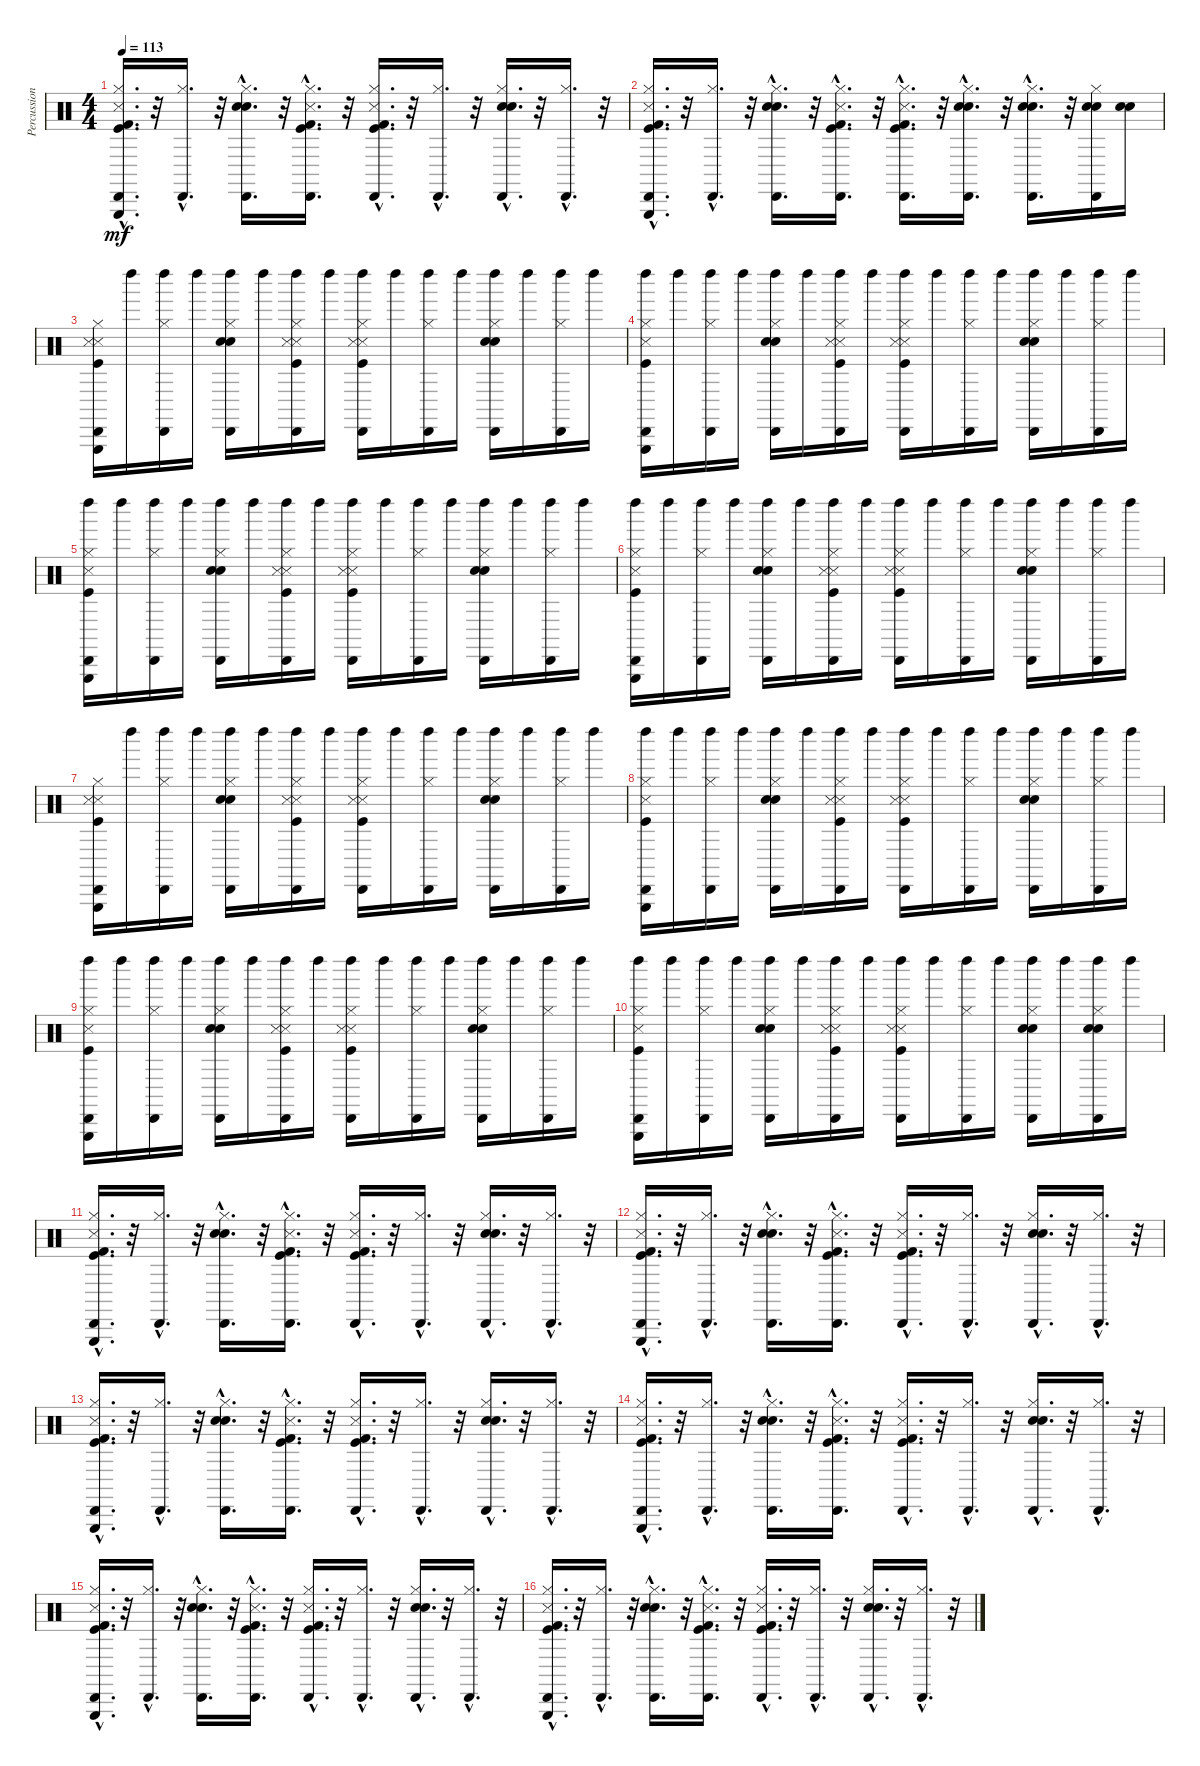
\track ("Percussion" "Percussion") {instrument percussion}
\staff {score}
\articulation defaults
\ts (4 4)
\tempo 113
\clef neutral
\ks c
("Hi-Hat (closed)"{hac} "Kick (hit)"{hac} "Metronome (hit)"{hac} "Triangle (hit)"{hac} "Cabasa (hit)"{hac} "Kick (hit) 2"{hac}).16{d dy mf} r.32 ("Hi-Hat (closed)"{hac} "Cabasa (hit)"{hac}).16{d} r.32 ("Hi-Hat (closed)"{hac} "Electric Snare (hit)"{hac} "Cabasa (hit)"{hac} "Hand Clap (hit)"{hac}).16{d} r.32 ("Hi-Hat (closed)"{hac} "Metronome (hit)"{hac} "Kick (hit)"{hac} "Cabasa (hit)"{hac} "Kick (hit) 2"{hac}).16{d} r.32 ("Hi-Hat (closed)"{hac} "Kick (hit)"{hac} "Metronome (hit)"{hac} "Cabasa (hit)"{hac} "Kick (hit) 2"{hac}).16{d} r.32 ("Hi-Hat (closed)"{hac} "Cabasa (hit)"{hac}).16{d} r.32 ("Hi-Hat (closed)"{hac} "Electric Snare (hit)"{hac} "Hand Clap (hit)"{hac} "Cabasa (hit)"{hac}).16{d} r.32 ("Hi-Hat (closed)"{hac} "Cabasa (hit)"{hac}).16{d} r.32 |
("Hi-Hat (closed)"{hac} "Kick (hit)"{hac} "Metronome (hit)"{hac} "Triangle (hit)"{hac} "Cabasa (hit)"{hac} "Kick (hit) 2"{hac}).16{d} r.32 ("Hi-Hat (closed)"{hac} "Cabasa (hit)"{hac}).16{d} r.32 ("Hi-Hat (closed)"{hac} "Electric Snare (hit)"{hac} "Cabasa (hit)"{hac} "Hand Clap (hit)"{hac}).16{d} r.32 ("Hi-Hat (closed)"{hac} "Metronome (hit)"{hac} "Kick (hit)"{hac} "Cabasa (hit)"{hac} "Kick (hit) 2"{hac}).16{d} r.32 ("Hi-Hat (closed)"{hac} "Kick (hit)"{hac} "Metronome (hit)"{hac} "Cabasa (hit)"{hac} "Kick (hit) 2"{hac}).16{d} r.32 ("Hand Clap (hit)"{hac} "Electric Snare (hit)"{hac} "Hi-Hat (closed)"{hac} "Cabasa (hit)"{hac}).16{d} r.32 ("Hi-Hat (closed)"{hac} "Electric Snare (hit)"{hac} "Hand Clap (hit)"{hac} "Cabasa (hit)"{hac}).16{d} r.32 ("Cabasa (hit)" "Hi-Hat (closed)" "Hand Clap (hit)" "Electric Snare (hit)").16 ("Hand Clap (hit)" "Electric Snare (hit)").16 |
("Metronome (hit)" "Kick (hit)" "Snare (side stick) 3" "Hi-Hat (closed)" "Triangle (hit)" "Cabasa (hit)").16 "Left Maraca (hit)".16 ("Hi-Hat (closed)" "Cabasa (hit)" "Left Maraca (hit)").16 "Left Maraca (hit)".16 ("Hi-Hat (closed)" "Electric Snare (hit)" "Hand Clap (hit)" "Cabasa (hit)" "Left Maraca (hit)").16 "Left Maraca (hit)".16 ("Metronome (hit)" "Snare (side stick) 3" "Kick (hit)" "Hi-Hat (closed)" "Cabasa (hit)" "Left Maraca (hit)").16 "Left Maraca (hit)".16 ("Kick (hit)" "Metronome (hit)" "Snare (side stick) 3" "Hi-Hat (closed)" "Cabasa (hit)" "Left Maraca (hit)").16 "Left Maraca (hit)".16 ("Hi-Hat (closed)" "Cabasa (hit)" "Left Maraca (hit)").16 "Left Maraca (hit)".16 ("Hand Clap (hit)" "Electric Snare (hit)" "Hi-Hat (closed)" "Cabasa (hit)" "Left Maraca (hit)").16 "Left Maraca (hit)".16 ("Hi-Hat (closed)" "Cabasa (hit)" "Left Maraca (hit)").16 "Left Maraca (hit)".16 |
("Left Maraca (hit)" "Cabasa (hit)" "Triangle (hit)" "Hi-Hat (closed)" "Snare (side stick) 3" "Kick (hit)").16 "Left Maraca (hit)".16 ("Left Maraca (hit)" "Cabasa (hit)" "Hi-Hat (closed)").16 "Left Maraca (hit)".16 ("Left Maraca (hit)" "Cabasa (hit)" "Hi-Hat (closed)" "Electric Snare (hit)" "Hand Clap (hit)").16 "Left Maraca (hit)".16 ("Hi-Hat (closed)" "Left Maraca (hit)" "Cabasa (hit)" "Metronome (hit)" "Kick (hit)" "Snare (side stick) 3").16 "Left Maraca (hit)".16 ("Left Maraca (hit)" "Cabasa (hit)" "Hi-Hat (closed)" "Snare (side stick) 3" "Kick (hit)" "Metronome (hit)").16 "Left Maraca (hit)".16 ("Left Maraca (hit)" "Cabasa (hit)" "Hi-Hat (closed)").16 "Left Maraca (hit)".16 ("Left Maraca (hit)" "Cabasa (hit)" "Hi-Hat (closed)" "Electric Snare (hit)" "Hand Clap (hit)").16 "Left Maraca (hit)".16 ("Left Maraca (hit)" "Cabasa (hit)" "Hi-Hat (closed)").16 "Left Maraca (hit)".16 |
("Left Maraca (hit)" "Cabasa (hit)" "Triangle (hit)" "Hi-Hat (closed)" "Snare (side stick) 3" "Kick (hit)").16 "Left Maraca (hit)".16 ("Left Maraca (hit)" "Cabasa (hit)" "Hi-Hat (closed)").16 "Left Maraca (hit)".16 ("Left Maraca (hit)" "Cabasa (hit)" "Hi-Hat (closed)" "Electric Snare (hit)" "Hand Clap (hit)").16 "Left Maraca (hit)".16 ("Left Maraca (hit)" "Cabasa (hit)" "Hi-Hat (closed)" "Metronome (hit)" "Kick (hit)" "Snare (side stick) 3").16 "Left Maraca (hit)".16 ("Left Maraca (hit)" "Cabasa (hit)" "Hi-Hat (closed)" "Snare (side stick) 3" "Kick (hit)" "Metronome (hit)").16 "Left Maraca (hit)".16 ("Left Maraca (hit)" "Cabasa (hit)" "Hi-Hat (closed)").16 "Left Maraca (hit)".16 ("Left Maraca (hit)" "Cabasa (hit)" "Hi-Hat (closed)" "Electric Snare (hit)" "Hand Clap (hit)").16 "Left Maraca (hit)".16 ("Left Maraca (hit)" "Cabasa (hit)" "Hi-Hat (closed)").16 "Left Maraca (hit)".16 |
("Left Maraca (hit)" "Cabasa (hit)" "Triangle (hit)" "Hi-Hat (closed)" "Snare (side stick) 3" "Kick (hit)").16 "Left Maraca (hit)".16 ("Left Maraca (hit)" "Cabasa (hit)" "Hi-Hat (closed)").16 "Left Maraca (hit)".16 ("Left Maraca (hit)" "Cabasa (hit)" "Hi-Hat (closed)" "Electric Snare (hit)" "Hand Clap (hit)").16 "Left Maraca (hit)".16 ("Left Maraca (hit)" "Cabasa (hit)" "Hi-Hat (closed)" "Metronome (hit)" "Kick (hit)" "Snare (side stick) 3").16 "Left Maraca (hit)".16 ("Left Maraca (hit)" "Cabasa (hit)" "Hi-Hat (closed)" "Snare (side stick) 3" "Kick (hit)" "Metronome (hit)").16 "Left Maraca (hit)".16 ("Left Maraca (hit)" "Cabasa (hit)" "Hi-Hat (closed)").16 "Left Maraca (hit)".16 ("Left Maraca (hit)" "Cabasa (hit)" "Hi-Hat (closed)" "Electric Snare (hit)" "Hand Clap (hit)").16 "Left Maraca (hit)".16 ("Left Maraca (hit)" "Cabasa (hit)" "Hi-Hat (closed)").16 "Left Maraca (hit)".16 |
("Metronome (hit)" "Kick (hit)" "Snare (side stick) 3" "Hi-Hat (closed)" "Triangle (hit)" "Cabasa (hit)").16 "Left Maraca (hit)".16 ("Hi-Hat (closed)" "Cabasa (hit)" "Left Maraca (hit)").16 "Left Maraca (hit)".16 ("Hand Clap (hit)" "Electric Snare (hit)" "Hi-Hat (closed)" "Cabasa (hit)" "Left Maraca (hit)").16 "Left Maraca (hit)".16 ("Snare (side stick) 3" "Kick (hit)" "Metronome (hit)" "Hi-Hat (closed)" "Cabasa (hit)" "Left Maraca (hit)").16 "Left Maraca (hit)".16 ("Metronome (hit)" "Kick (hit)" "Snare (side stick) 3" "Hi-Hat (closed)" "Cabasa (hit)" "Left Maraca (hit)").16 "Left Maraca (hit)".16 ("Hi-Hat (closed)" "Cabasa (hit)" "Left Maraca (hit)").16 "Left Maraca (hit)".16 ("Hand Clap (hit)" "Electric Snare (hit)" "Hi-Hat (closed)" "Cabasa (hit)" "Left Maraca (hit)").16 "Left Maraca (hit)".16 ("Hi-Hat (closed)" "Cabasa (hit)" "Left Maraca (hit)").16 "Left Maraca (hit)".16 |
("Left Maraca (hit)" "Cabasa (hit)" "Triangle (hit)" "Hi-Hat (closed)" "Snare (side stick) 3" "Kick (hit)").16 "Left Maraca (hit)".16 ("Left Maraca (hit)" "Cabasa (hit)" "Hi-Hat (closed)").16 "Left Maraca (hit)".16 ("Left Maraca (hit)" "Cabasa (hit)" "Hi-Hat (closed)" "Electric Snare (hit)" "Hand Clap (hit)").16 "Left Maraca (hit)".16 ("Left Maraca (hit)" "Cabasa (hit)" "Hi-Hat (closed)" "Metronome (hit)" "Kick (hit)" "Snare (side stick) 3").16 "Left Maraca (hit)".16 ("Left Maraca (hit)" "Cabasa (hit)" "Hi-Hat (closed)" "Snare (side stick) 3" "Kick (hit)" "Metronome (hit)").16 "Left Maraca (hit)".16 ("Left Maraca (hit)" "Cabasa (hit)" "Hi-Hat (closed)").16 "Left Maraca (hit)".16 ("Left Maraca (hit)" "Cabasa (hit)" "Hi-Hat (closed)" "Electric Snare (hit)" "Hand Clap (hit)").16 "Left Maraca (hit)".16 ("Left Maraca (hit)" "Cabasa (hit)" "Hi-Hat (closed)").16 "Left Maraca (hit)".16 |
("Left Maraca (hit)" "Cabasa (hit)" "Triangle (hit)" "Hi-Hat (closed)" "Snare (side stick) 3" "Kick (hit)").16 "Left Maraca (hit)".16 ("Left Maraca (hit)" "Cabasa (hit)" "Hi-Hat (closed)").16 "Left Maraca (hit)".16 ("Left Maraca (hit)" "Cabasa (hit)" "Hi-Hat (closed)" "Electric Snare (hit)" "Hand Clap (hit)").16 "Left Maraca (hit)".16 ("Left Maraca (hit)" "Cabasa (hit)" "Hi-Hat (closed)" "Metronome (hit)" "Kick (hit)" "Snare (side stick) 3").16 "Left Maraca (hit)".16 ("Left Maraca (hit)" "Cabasa (hit)" "Hi-Hat (closed)" "Snare (side stick) 3" "Kick (hit)" "Metronome (hit)").16 "Left Maraca (hit)".16 ("Left Maraca (hit)" "Cabasa (hit)" "Hi-Hat (closed)").16 "Left Maraca (hit)".16 ("Left Maraca (hit)" "Cabasa (hit)" "Hi-Hat (closed)" "Electric Snare (hit)" "Hand Clap (hit)").16 "Left Maraca (hit)".16 ("Left Maraca (hit)" "Cabasa (hit)" "Hi-Hat (closed)").16 "Left Maraca (hit)".16 |
("Left Maraca (hit)" "Cabasa (hit)" "Triangle (hit)" "Hi-Hat (closed)" "Snare (side stick) 3" "Kick (hit)").16 "Left Maraca (hit)".16 ("Left Maraca (hit)" "Cabasa (hit)" "Hi-Hat (closed)").16 "Left Maraca (hit)".16 ("Left Maraca (hit)" "Cabasa (hit)" "Hi-Hat (closed)" "Electric Snare (hit)" "Hand Clap (hit)").16 "Left Maraca (hit)".16 ("Left Maraca (hit)" "Cabasa (hit)" "Hi-Hat (closed)" "Metronome (hit)" "Kick (hit)" "Snare (side stick) 3").16 "Left Maraca (hit)".16 ("Left Maraca (hit)" "Cabasa (hit)" "Hi-Hat (closed)" "Snare (side stick) 3" "Kick (hit)" "Metronome (hit)").16 "Left Maraca (hit)".16 ("Left Maraca (hit)" "Cabasa (hit)" "Hi-Hat (closed)").16 "Left Maraca (hit)".16 ("Left Maraca (hit)" "Cabasa (hit)" "Hi-Hat (closed)" "Electric Snare (hit)" "Hand Clap (hit)").16 "Left Maraca (hit)".16 ("Hand Clap (hit)" "Electric Snare (hit)" "Left Maraca (hit)" "Cabasa (hit)" "Hi-Hat (closed)").16 "Left Maraca (hit)".16 |
("Hi-Hat (closed)"{hac} "Kick (hit)"{hac} "Metronome (hit)"{hac} "Triangle (hit)"{hac} "Cabasa (hit)"{hac} "Kick (hit) 2"{hac}).16{d} r.32 ("Hi-Hat (closed)"{hac} "Cabasa (hit)"{hac}).16{d} r.32 ("Cabasa (hit)"{hac} "Hi-Hat (closed)"{hac} "Electric Snare (hit)"{hac} "Hand Clap (hit)"{hac}).16{d} r.32 ("Metronome (hit)"{hac} "Hi-Hat (closed)"{hac} "Kick (hit)"{hac} "Cabasa (hit)"{hac} "Kick (hit) 2"{hac}).16{d} r.32 ("Hi-Hat (closed)"{hac} "Kick (hit)"{hac} "Metronome (hit)"{hac} "Cabasa (hit)"{hac} "Kick (hit) 2"{hac}).16{d} r.32 ("Hi-Hat (closed)"{hac} "Cabasa (hit)"{hac}).16{d} r.32 ("Hi-Hat (closed)"{hac} "Electric Snare (hit)"{hac} "Hand Clap (hit)"{hac} "Cabasa (hit)"{hac}).16{d} r.32 ("Hi-Hat (closed)"{hac} "Cabasa (hit)"{hac}).16{d} r.32 |
("Hi-Hat (closed)"{hac} "Kick (hit)"{hac} "Metronome (hit)"{hac} "Triangle (hit)"{hac} "Cabasa (hit)"{hac} "Kick (hit) 2"{hac}).16{d} r.32 ("Hi-Hat (closed)"{hac} "Cabasa (hit)"{hac}).16{d} r.32 ("Hi-Hat (closed)"{hac} "Electric Snare (hit)"{hac} "Cabasa (hit)"{hac} "Hand Clap (hit)"{hac}).16{d} r.32 ("Hi-Hat (closed)"{hac} "Metronome (hit)"{hac} "Kick (hit)"{hac} "Cabasa (hit)"{hac} "Kick (hit) 2"{hac}).16{d} r.32 ("Hi-Hat (closed)"{hac} "Kick (hit)"{hac} "Metronome (hit)"{hac} "Cabasa (hit)"{hac} "Kick (hit) 2"{hac}).16{d} r.32 ("Hi-Hat (closed)"{hac} "Cabasa (hit)"{hac}).16{d} r.32 ("Hi-Hat (closed)"{hac} "Electric Snare (hit)"{hac} "Hand Clap (hit)"{hac} "Cabasa (hit)"{hac}).16{d} r.32 ("Hi-Hat (closed)"{hac} "Cabasa (hit)"{hac}).16{d} r.32 |
("Hi-Hat (closed)"{hac} "Kick (hit)"{hac} "Metronome (hit)"{hac} "Triangle (hit)"{hac} "Cabasa (hit)"{hac} "Kick (hit) 2"{hac}).16{d} r.32 ("Hi-Hat (closed)"{hac} "Cabasa (hit)"{hac}).16{d} r.32 ("Hi-Hat (closed)"{hac} "Electric Snare (hit)"{hac} "Cabasa (hit)"{hac} "Hand Clap (hit)"{hac}).16{d} r.32 ("Hi-Hat (closed)"{hac} "Metronome (hit)"{hac} "Kick (hit)"{hac} "Cabasa (hit)"{hac} "Kick (hit) 2"{hac}).16{d} r.32 ("Hi-Hat (closed)"{hac} "Kick (hit)"{hac} "Metronome (hit)"{hac} "Cabasa (hit)"{hac} "Kick (hit) 2"{hac}).16{d} r.32 ("Hi-Hat (closed)"{hac} "Cabasa (hit)"{hac}).16{d} r.32 ("Hi-Hat (closed)"{hac} "Electric Snare (hit)"{hac} "Hand Clap (hit)"{hac} "Cabasa (hit)"{hac}).16{d} r.32 ("Hi-Hat (closed)"{hac} "Cabasa (hit)"{hac}).16{d} r.32 |
("Hi-Hat (closed)"{hac} "Kick (hit)"{hac} "Metronome (hit)"{hac} "Triangle (hit)"{hac} "Cabasa (hit)"{hac} "Kick (hit) 2"{hac}).16{d} r.32 ("Hi-Hat (closed)"{hac} "Cabasa (hit)"{hac}).16{d} r.32 ("Hi-Hat (closed)"{hac} "Electric Snare (hit)"{hac} "Cabasa (hit)"{hac} "Hand Clap (hit)"{hac}).16{d} r.32 ("Hi-Hat (closed)"{hac} "Metronome (hit)"{hac} "Kick (hit)"{hac} "Cabasa (hit)"{hac} "Kick (hit) 2"{hac}).16{d} r.32 ("Hi-Hat (closed)"{hac} "Kick (hit)"{hac} "Metronome (hit)"{hac} "Cabasa (hit)"{hac} "Kick (hit) 2"{hac}).16{d} r.32 ("Hi-Hat (closed)"{hac} "Cabasa (hit)"{hac}).16{d} r.32 ("Hi-Hat (closed)"{hac} "Electric Snare (hit)"{hac} "Hand Clap (hit)"{hac} "Cabasa (hit)"{hac}).16{d} r.32 ("Hi-Hat (closed)"{hac} "Cabasa (hit)"{hac}).16{d} r.32 |
("Hi-Hat (closed)"{hac} "Kick (hit)"{hac} "Metronome (hit)"{hac} "Triangle (hit)"{hac} "Cabasa (hit)"{hac} "Kick (hit) 2"{hac}).16{d} r.32 ("Hi-Hat (closed)"{hac} "Cabasa (hit)"{hac}).16{d} r.32 ("Hi-Hat (closed)"{hac} "Electric Snare (hit)"{hac} "Cabasa (hit)"{hac} "Hand Clap (hit)"{hac}).16{d} r.32 ("Hi-Hat (closed)"{hac} "Metronome (hit)"{hac} "Kick (hit)"{hac} "Cabasa (hit)"{hac} "Kick (hit) 2"{hac}).16{d} r.32 ("Hi-Hat (closed)"{hac} "Kick (hit)"{hac} "Metronome (hit)"{hac} "Cabasa (hit)"{hac} "Kick (hit) 2"{hac}).16{d} r.32 ("Hi-Hat (closed)"{hac} "Cabasa (hit)"{hac}).16{d} r.32 ("Hi-Hat (closed)"{hac} "Electric Snare (hit)"{hac} "Hand Clap (hit)"{hac} "Cabasa (hit)"{hac}).16{d} r.32 ("Hi-Hat (closed)"{hac} "Cabasa (hit)"{hac}).16{d} r.32 |
("Kick (hit)"{hac} "Metronome (hit)"{hac} "Triangle (hit)"{hac} "Cabasa (hit)"{hac} "Kick (hit) 2"{hac} "Hi-Hat (closed)"{hac}).16{d} r.32 ("Cabasa (hit)"{hac} "Hi-Hat (closed)"{hac}).16{d} r.32 ("Cabasa (hit)"{hac} "Hand Clap (hit)"{hac} "Electric Snare (hit)"{hac} "Hi-Hat (closed)"{hac}).16{d} r.32 ("Hi-Hat (closed)"{hac} "Kick (hit)"{hac} "Cabasa (hit)"{hac} "Kick (hit) 2"{hac} "Metronome (hit)"{hac}).16{d} r.32 ("Hi-Hat (closed)"{hac} "Kick (hit)"{hac} "Metronome (hit)"{hac} "Cabasa (hit)"{hac} "Kick (hit) 2"{hac}).16{d} r.32 ("Hi-Hat (closed)"{hac} "Cabasa (hit)"{hac}).16{d} r.32 ("Hi-Hat (closed)"{hac} "Electric Snare (hit)"{hac} "Hand Clap (hit)"{hac} "Cabasa (hit)"{hac}).16{d} r.32 ("Hi-Hat (closed)"{hac} "Cabasa (hit)"{hac}).16{d} r.32
